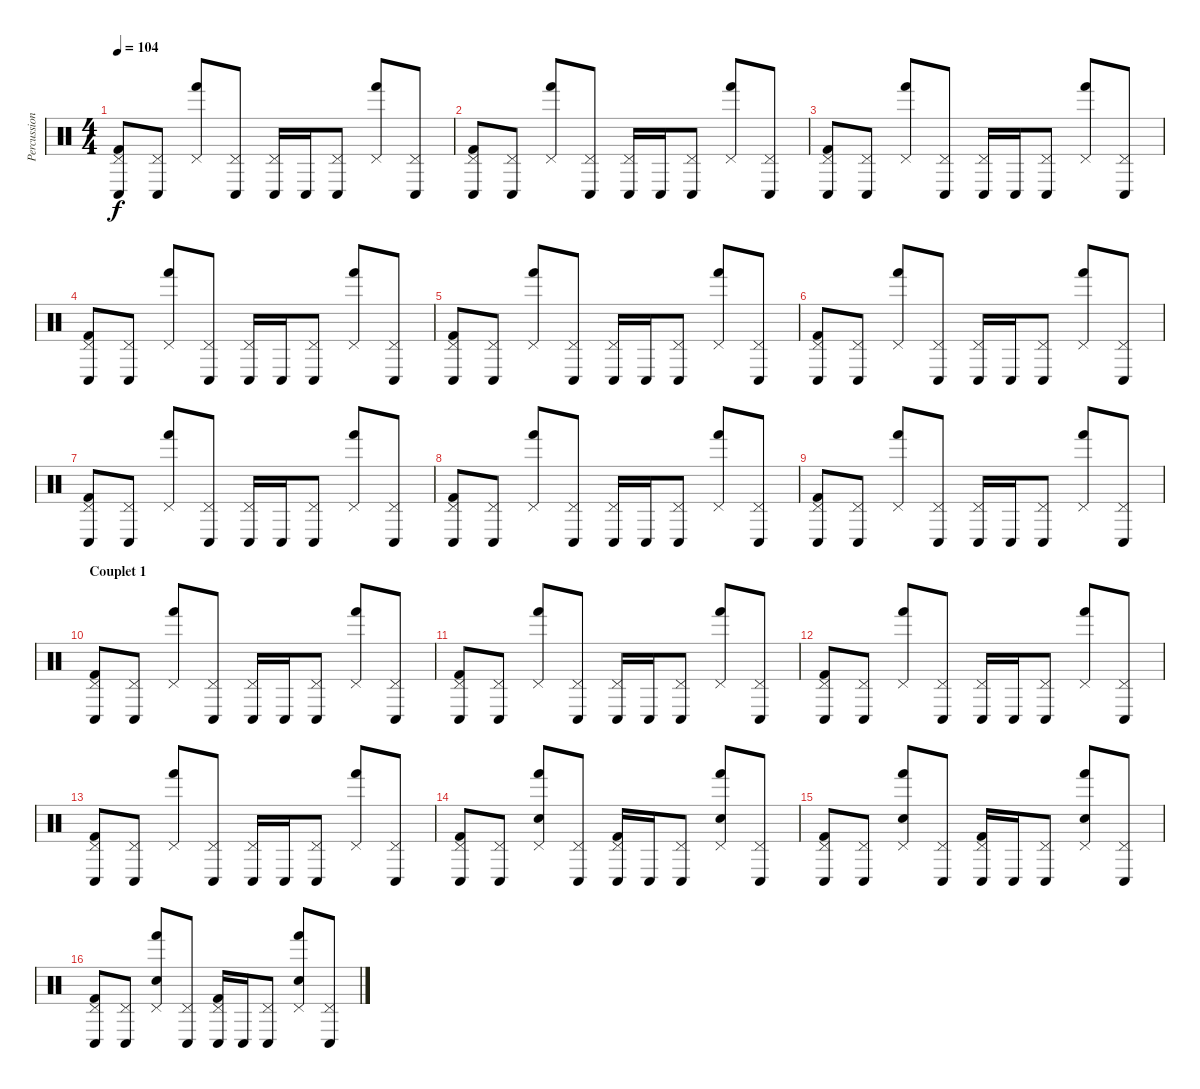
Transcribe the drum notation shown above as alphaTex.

\track ("Percussions" "Percussion") {instrument percussion}
\staff {score}
\articulation defaults
\ts (4 4)
\tempo 104
\clef neutral
\ks c
("Pedal Hi-Hat (hit)" "Conga low (hit)" "Kick (hit) 2").8{dy f} ("Pedal Hi-Hat (hit)" "Conga low (hit)").8 ("Pedal Hi-Hat (hit)" "Hand (hit)").8 ("Pedal Hi-Hat (hit)" "Conga low (hit)").8 ("Pedal Hi-Hat (hit)" "Conga low (hit)").16 "Conga low (hit)".16 ("Pedal Hi-Hat (hit)" "Conga low (hit)").8 ("Pedal Hi-Hat (hit)" "Hand (hit)").8 ("Pedal Hi-Hat (hit)" "Conga low (hit)").8 |
("Pedal Hi-Hat (hit)" "Conga low (hit)" "Kick (hit) 2").8 ("Pedal Hi-Hat (hit)" "Conga low (hit)").8 ("Pedal Hi-Hat (hit)" "Hand (hit)").8 ("Pedal Hi-Hat (hit)" "Conga low (hit)").8 ("Pedal Hi-Hat (hit)" "Conga low (hit)").16 "Conga low (hit)".16 ("Pedal Hi-Hat (hit)" "Conga low (hit)").8 ("Pedal Hi-Hat (hit)" "Hand (hit)").8 ("Pedal Hi-Hat (hit)" "Conga low (hit)").8 |
("Pedal Hi-Hat (hit)" "Conga low (hit)" "Kick (hit) 2").8 ("Pedal Hi-Hat (hit)" "Conga low (hit)").8 ("Pedal Hi-Hat (hit)" "Hand (hit)").8 ("Pedal Hi-Hat (hit)" "Conga low (hit)").8 ("Pedal Hi-Hat (hit)" "Conga low (hit)").16 "Conga low (hit)".16 ("Pedal Hi-Hat (hit)" "Conga low (hit)").8 ("Pedal Hi-Hat (hit)" "Hand (hit)").8 ("Pedal Hi-Hat (hit)" "Conga low (hit)").8 |
("Pedal Hi-Hat (hit)" "Conga low (hit)" "Kick (hit) 2").8 ("Pedal Hi-Hat (hit)" "Conga low (hit)").8 ("Pedal Hi-Hat (hit)" "Hand (hit)").8 ("Pedal Hi-Hat (hit)" "Conga low (hit)").8 ("Pedal Hi-Hat (hit)" "Conga low (hit)").16 "Conga low (hit)".16 ("Pedal Hi-Hat (hit)" "Conga low (hit)").8 ("Pedal Hi-Hat (hit)" "Hand (hit)").8 ("Pedal Hi-Hat (hit)" "Conga low (hit)").8 |
("Pedal Hi-Hat (hit)" "Conga low (hit)" "Kick (hit) 2").8 ("Pedal Hi-Hat (hit)" "Conga low (hit)").8 ("Pedal Hi-Hat (hit)" "Hand (hit)").8 ("Pedal Hi-Hat (hit)" "Conga low (hit)").8 ("Pedal Hi-Hat (hit)" "Conga low (hit)").16 "Conga low (hit)".16 ("Pedal Hi-Hat (hit)" "Conga low (hit)").8 ("Pedal Hi-Hat (hit)" "Hand (hit)").8 ("Pedal Hi-Hat (hit)" "Conga low (hit)").8 |
("Pedal Hi-Hat (hit)" "Conga low (hit)" "Kick (hit) 2").8 ("Pedal Hi-Hat (hit)" "Conga low (hit)").8 ("Pedal Hi-Hat (hit)" "Hand (hit)").8 ("Pedal Hi-Hat (hit)" "Conga low (hit)").8 ("Pedal Hi-Hat (hit)" "Conga low (hit)").16 "Conga low (hit)".16 ("Pedal Hi-Hat (hit)" "Conga low (hit)").8 ("Pedal Hi-Hat (hit)" "Hand (hit)").8 ("Pedal Hi-Hat (hit)" "Conga low (hit)").8 |
("Pedal Hi-Hat (hit)" "Conga low (hit)" "Kick (hit) 2").8 ("Pedal Hi-Hat (hit)" "Conga low (hit)").8 ("Pedal Hi-Hat (hit)" "Hand (hit)").8 ("Pedal Hi-Hat (hit)" "Conga low (hit)").8 ("Pedal Hi-Hat (hit)" "Conga low (hit)").16 "Conga low (hit)".16 ("Pedal Hi-Hat (hit)" "Conga low (hit)").8 ("Pedal Hi-Hat (hit)" "Hand (hit)").8 ("Pedal Hi-Hat (hit)" "Conga low (hit)").8 |
("Pedal Hi-Hat (hit)" "Conga low (hit)" "Kick (hit) 2").8 ("Pedal Hi-Hat (hit)" "Conga low (hit)").8 ("Pedal Hi-Hat (hit)" "Hand (hit)").8 ("Pedal Hi-Hat (hit)" "Conga low (hit)").8 ("Pedal Hi-Hat (hit)" "Conga low (hit)").16 "Conga low (hit)".16 ("Pedal Hi-Hat (hit)" "Conga low (hit)").8 ("Pedal Hi-Hat (hit)" "Hand (hit)").8 ("Pedal Hi-Hat (hit)" "Conga low (hit)").8 |
("Pedal Hi-Hat (hit)" "Conga low (hit)" "Kick (hit) 2").8 ("Pedal Hi-Hat (hit)" "Conga low (hit)").8 ("Pedal Hi-Hat (hit)" "Hand (hit)").8 ("Pedal Hi-Hat (hit)" "Conga low (hit)").8 ("Pedal Hi-Hat (hit)" "Conga low (hit)").16 "Conga low (hit)".16 ("Pedal Hi-Hat (hit)" "Conga low (hit)").8 ("Pedal Hi-Hat (hit)" "Hand (hit)").8 ("Pedal Hi-Hat (hit)" "Conga low (hit)").8 |
\section ("" "Couplet 1")
("Pedal Hi-Hat (hit)" "Conga low (hit)" "Kick (hit) 2").8 ("Pedal Hi-Hat (hit)" "Conga low (hit)").8 ("Pedal Hi-Hat (hit)" "Hand (hit)").8 ("Pedal Hi-Hat (hit)" "Conga low (hit)").8 ("Pedal Hi-Hat (hit)" "Conga low (hit)").16 "Conga low (hit)".16 ("Pedal Hi-Hat (hit)" "Conga low (hit)").8 ("Pedal Hi-Hat (hit)" "Hand (hit)").8 ("Pedal Hi-Hat (hit)" "Conga low (hit)").8 |
("Pedal Hi-Hat (hit)" "Conga low (hit)" "Kick (hit) 2").8 ("Pedal Hi-Hat (hit)" "Conga low (hit)").8 ("Pedal Hi-Hat (hit)" "Hand (hit)").8 ("Pedal Hi-Hat (hit)" "Conga low (hit)").8 ("Pedal Hi-Hat (hit)" "Conga low (hit)").16 "Conga low (hit)".16 ("Pedal Hi-Hat (hit)" "Conga low (hit)").8 ("Pedal Hi-Hat (hit)" "Hand (hit)").8 ("Pedal Hi-Hat (hit)" "Conga low (hit)").8 |
("Pedal Hi-Hat (hit)" "Conga low (hit)" "Kick (hit) 2").8 ("Pedal Hi-Hat (hit)" "Conga low (hit)").8 ("Pedal Hi-Hat (hit)" "Hand (hit)").8 ("Pedal Hi-Hat (hit)" "Conga low (hit)").8 ("Pedal Hi-Hat (hit)" "Conga low (hit)").16 "Conga low (hit)".16 ("Pedal Hi-Hat (hit)" "Conga low (hit)").8 ("Pedal Hi-Hat (hit)" "Hand (hit)").8 ("Pedal Hi-Hat (hit)" "Conga low (hit)").8 |
("Pedal Hi-Hat (hit)" "Conga low (hit)" "Kick (hit) 2").8 ("Pedal Hi-Hat (hit)" "Conga low (hit)").8 ("Pedal Hi-Hat (hit)" "Hand (hit)").8 ("Pedal Hi-Hat (hit)" "Conga low (hit)").8 ("Pedal Hi-Hat (hit)" "Conga low (hit)").16 "Conga low (hit)".16 ("Pedal Hi-Hat (hit)" "Conga low (hit)").8 ("Pedal Hi-Hat (hit)" "Hand (hit)").8 ("Pedal Hi-Hat (hit)" "Conga low (hit)").8 |
("Pedal Hi-Hat (hit)" "Conga low (hit)" "Kick (hit) 2").8 ("Pedal Hi-Hat (hit)" "Conga low (hit)").8 ("Pedal Hi-Hat (hit)" "Snare (hit) 2" "Hand (hit)").8 ("Pedal Hi-Hat (hit)" "Conga low (hit)").8 ("Pedal Hi-Hat (hit)" "Conga low (hit)" "Kick (hit) 2").16 "Conga low (hit)".16 ("Pedal Hi-Hat (hit)" "Conga low (hit)").8 ("Pedal Hi-Hat (hit)" "Snare (hit) 2" "Hand (hit)").8 ("Pedal Hi-Hat (hit)" "Conga low (hit)").8 |
("Pedal Hi-Hat (hit)" "Conga low (hit)" "Kick (hit) 2").8 ("Pedal Hi-Hat (hit)" "Conga low (hit)").8 ("Pedal Hi-Hat (hit)" "Snare (hit) 2" "Hand (hit)").8 ("Pedal Hi-Hat (hit)" "Conga low (hit)").8 ("Pedal Hi-Hat (hit)" "Conga low (hit)" "Kick (hit) 2").16 "Conga low (hit)".16 ("Pedal Hi-Hat (hit)" "Conga low (hit)").8 ("Pedal Hi-Hat (hit)" "Snare (hit) 2" "Hand (hit)").8 ("Pedal Hi-Hat (hit)" "Conga low (hit)").8 |
("Pedal Hi-Hat (hit)" "Conga low (hit)" "Kick (hit) 2").8 ("Pedal Hi-Hat (hit)" "Conga low (hit)").8 ("Pedal Hi-Hat (hit)" "Snare (hit) 2" "Hand (hit)").8 ("Pedal Hi-Hat (hit)" "Conga low (hit)").8 ("Pedal Hi-Hat (hit)" "Conga low (hit)" "Kick (hit) 2").16 "Conga low (hit)".16 ("Pedal Hi-Hat (hit)" "Conga low (hit)").8 ("Pedal Hi-Hat (hit)" "Snare (hit) 2" "Hand (hit)").8 ("Pedal Hi-Hat (hit)" "Conga low (hit)").8
